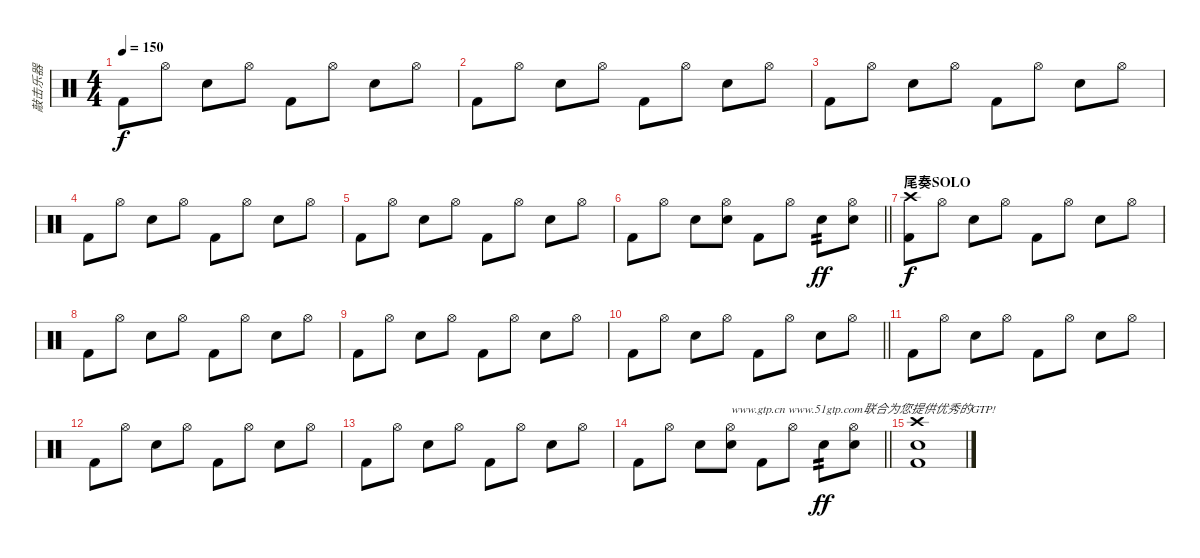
\track ("敲击乐器" "敲击乐器") {instrument percussion}
\staff {score}
\articulation defaults
\ts (4 4)
\tempo 150
\clef neutral
\ks c "Kick (hit) 2".8{dy f} "Hi-Hat (open)".8 "Snare (hit) 2".8 "Hi-Hat (open)".8 "Kick (hit) 2".8 "Hi-Hat (open)".8 "Snare (hit) 2".8 "Hi-Hat (open)".8
|
"Kick (hit) 2".8 "Hi-Hat (open)".8 "Snare (hit) 2".8 "Hi-Hat (open)".8 "Kick (hit) 2".8 "Hi-Hat (open)".8 "Snare (hit) 2".8 "Hi-Hat (open)".8 |
"Kick (hit) 2".8 "Hi-Hat (open)".8 "Snare (hit) 2".8 "Hi-Hat (open)".8 "Kick (hit) 2".8 "Hi-Hat (open)".8 "Snare (hit) 2".8 "Hi-Hat (open)".8 |
"Kick (hit) 2".8 "Hi-Hat (open)".8 "Snare (hit) 2".8 "Hi-Hat (open)".8 "Kick (hit) 2".8 "Hi-Hat (open)".8 "Snare (hit) 2".8 "Hi-Hat (open)".8 |
"Kick (hit) 2".8 "Hi-Hat (open)".8 "Snare (hit) 2".8 "Hi-Hat (open)".8 "Kick (hit) 2".8 "Hi-Hat (open)".8 "Snare (hit) 2".8 "Hi-Hat (open)".8 |
\barLineRight lightlight "Kick (hit) 2".8 "Hi-Hat (open)".8 "Snare (hit) 2".8
("Hi-Hat (open)" "Snare (hit) 2").8 "Kick (hit) 2".8 "Hi-Hat (open)".8 "Snare (hit) 2".8{tp 2 dy ff} ("Hi-Hat (open)" "Snare (hit) 2").8 |
\section ("" "尾奏SOLO")
("Crash high (hit)" "Kick (hit) 2").8{dy f} "Hi-Hat (open)".8 "Snare (hit) 2".8 "Hi-Hat (open)".8 "Kick (hit) 2".8 "Hi-Hat (open)".8 "Snare (hit) 2".8 "Hi-Hat (open)".8 |
"Kick (hit) 2".8 "Hi-Hat (open)".8 "Snare (hit) 2".8 "Hi-Hat (open)".8 "Kick (hit) 2".8 "Hi-Hat (open)".8 "Snare (hit) 2".8 "Hi-Hat (open)".8 |
"Kick (hit) 2".8 "Hi-Hat (open)".8 "Snare (hit) 2".8 "Hi-Hat (open)".8 "Kick (hit) 2".8 "Hi-Hat (open)".8 "Snare (hit) 2".8 "Hi-Hat (open)".8 |
\barLineRight lightlight "Kick (hit) 2".8 "Hi-Hat (open)".8 "Snare (hit) 2".8 "Hi-Hat (open)".8 "Kick (hit) 2".8 "Hi-Hat (open)".8 "Snare (hit) 2".8 "Hi-Hat (open)".8
|
"Kick (hit) 2".8 "Hi-Hat (open)".8 "Snare (hit) 2".8 "Hi-Hat (open)".8 "Kick (hit) 2".8 "Hi-Hat (open)".8 "Snare (hit) 2".8 "Hi-Hat (open)".8 |
"Kick (hit) 2".8 "Hi-Hat (open)".8 "Snare (hit) 2".8 "Hi-Hat (open)".8 "Kick (hit) 2".8 "Hi-Hat (open)".8 "Snare (hit) 2".8 "Hi-Hat (open)".8 |
"Kick (hit) 2".8 "Hi-Hat (open)".8 "Snare (hit) 2".8 "Hi-Hat (open)".8 "Kick (hit) 2".8 "Hi-Hat (open)".8 "Snare (hit) 2".8 "Hi-Hat (open)".8 |
\barLineRight lightlight "Kick (hit) 2".8 "Hi-Hat (open)".8 "Snare (hit) 2".8
("Hi-Hat (open)" "Snare (hit) 2").8{txt "www.gtp.cn www.51gtp.com联合为您提供优秀的GTP!"} "Kick (hit) 2".8 "Hi-Hat (open)".8 "Snare (hit) 2".8{tp 2 dy ff} ("Hi-Hat (open)" "Snare (hit) 2").8 |
("Crash high (hit)" "Snare (hit) 2" "Kick (hit) 2").1
